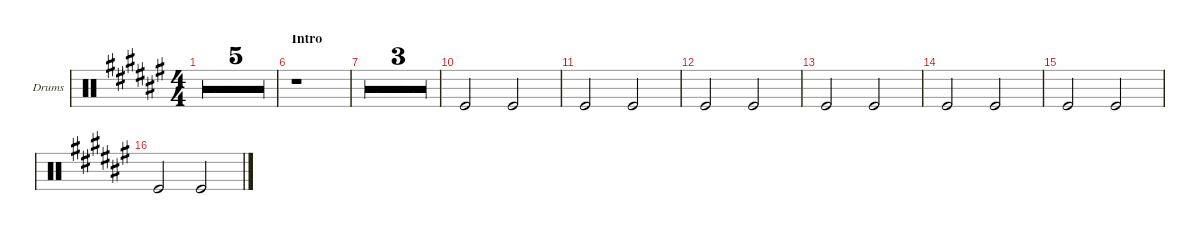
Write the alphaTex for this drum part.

\defaultSystemsLayout 4
\hideDynamics
\bracketExtendMode groupsimilarinstruments
\multiBarRest
\firstSystemTrackNameOrientation horizontal
\otherSystemsTrackNameOrientation horizontal
\track ("Drumkit" "Drums") {multiBarRest instrument percussion}
\staff {score}
\articulation defaults
\ts (4 4)
\tempo 80
\clef neutral
\ks f#
r.1{dy mf} |
r.1 |
r.1 |
r.1 |
r.1 |
\section ("" "Intro")
r.1 |
r.1 |
r.1 |
r.1 |
"Kick (hit)".2 "Kick (hit)".2 |
"Kick (hit)".2 "Kick (hit)".2 |
"Kick (hit)".2 "Kick (hit)".2 |
"Kick (hit)".2 "Kick (hit)".2 |
"Kick (hit)".2 "Kick (hit)".2 |
"Kick (hit)".2 "Kick (hit)".2 |
"Kick (hit)".2 "Kick (hit)".2
